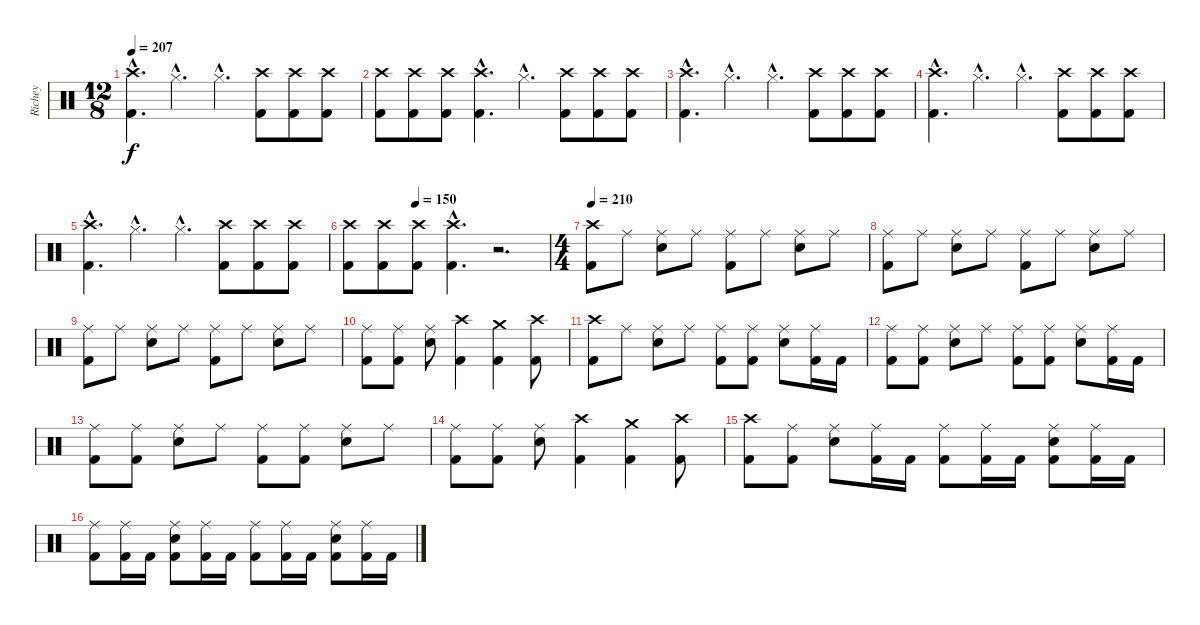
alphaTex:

\track ("Richey" "Richey") {instrument percussion}
\staff {score}
\articulation defaults
\ts (12 8)
\tempo 207
\clef neutral
\ks c
("Crash high (hit)"{hac} "Kick (hit) 2"{hac}).4{d dy f} "Hi-Hat (closed)"{hac}.4{d} "Hi-Hat (closed)"{hac}.4{d} ("Crash high (hit)" "Kick (hit) 2").8 ("Crash high (hit)" "Kick (hit) 2").8 ("Crash high (hit)" "Kick (hit) 2").8 |
("Crash high (hit)" "Kick (hit) 2").8 ("Crash high (hit)" "Kick (hit) 2").8 ("Crash high (hit)" "Kick (hit) 2").8 ("Crash high (hit)"{hac} "Kick (hit) 2"{hac}).4{d} "Hi-Hat (closed)"{hac}.4{d} ("Crash high (hit)" "Kick (hit) 2").8 ("Crash high (hit)" "Kick (hit) 2").8 ("Crash high (hit)" "Kick (hit) 2").8 |
("Crash high (hit)"{hac} "Kick (hit) 2"{hac}).4{d} "Hi-Hat (closed)"{hac}.4{d} "Hi-Hat (closed)"{hac}.4{d} ("Crash high (hit)" "Kick (hit) 2").8 ("Crash high (hit)" "Kick (hit) 2").8 ("Crash high (hit)" "Kick (hit) 2").8 |
("Crash high (hit)"{hac} "Kick (hit) 2"{hac}).4{d} "Hi-Hat (closed)"{hac}.4{d} "Hi-Hat (closed)"{hac}.4{d} ("Crash high (hit)" "Kick (hit) 2").8 ("Crash high (hit)" "Kick (hit) 2").8 ("Crash high (hit)" "Kick (hit) 2").8 |
("Crash high (hit)"{hac} "Kick (hit) 2"{hac}).4{d} "Hi-Hat (closed)"{hac}.4{d} "Hi-Hat (closed)"{hac}.4{d} ("Crash high (hit)" "Kick (hit) 2").8 ("Crash high (hit)" "Kick (hit) 2").8 ("Crash high (hit)" "Kick (hit) 2").8 |
\tempo (150 0.3333333333333333)
("Crash high (hit)" "Kick (hit) 2").8 ("Crash high (hit)" "Kick (hit) 2").8 ("Crash high (hit)" "Kick (hit) 2").8 ("Crash high (hit)"{hac} "Kick (hit) 2"{hac}).4{d} r.2{d} |
\ts (4 4)
\tempo 210
("Crash high (hit)" "Kick (hit) 2").8 "Ride (middle)".8 ("Ride (middle)" "Snare (hit) 2").8 "Ride (middle)".8 ("Ride (middle)" "Kick (hit) 2").8 "Ride (middle)".8 ("Ride (middle)" "Snare (hit) 2").8 "Ride (middle)".8 |
("Ride (middle)" "Kick (hit) 2").8 "Ride (middle)".8 ("Ride (middle)" "Snare (hit) 2").8 "Ride (middle)".8 ("Ride (middle)" "Kick (hit) 2").8 "Ride (middle)".8 ("Ride (middle)" "Snare (hit) 2").8 "Ride (middle)".8 |
("Ride (middle)" "Kick (hit) 2").8 "Ride (middle)".8 ("Ride (middle)" "Snare (hit) 2").8 "Ride (middle)".8 ("Ride (middle)" "Kick (hit) 2").8 "Ride (middle)".8 ("Ride (middle)" "Snare (hit) 2").8 "Ride (middle)".8 |
("Ride (middle)" "Kick (hit) 2").8 ("Ride (middle)" "Kick (hit) 2").8 ("Ride (middle)" "Snare (hit) 2").8 ("Crash high (hit)" "Kick (hit) 2").4 ("Crash medium (hit)" "Kick (hit) 2").4 ("Crash high (hit)" "Kick (hit) 2").8 |
("Crash high (hit)" "Kick (hit) 2").8 "Ride (middle)".8 ("Ride (middle)" "Snare (hit) 2").8 "Ride (middle)".8 ("Ride (middle)" "Kick (hit) 2").8 ("Ride (middle)" "Kick (hit) 2").8 ("Ride (middle)" "Snare (hit) 2").8 ("Ride (middle)" "Kick (hit) 2").16 "Kick (hit) 2".16 |
("Ride (middle)" "Kick (hit) 2").8 ("Ride (middle)" "Kick (hit) 2").8 ("Ride (middle)" "Snare (hit) 2").8 "Ride (middle)".8 ("Ride (middle)" "Kick (hit) 2").8 ("Ride (middle)" "Kick (hit) 2").8 ("Ride (middle)" "Snare (hit) 2").8 ("Ride (middle)" "Kick (hit) 2").16 "Kick (hit) 2".16 |
("Ride (middle)" "Kick (hit) 2").8 ("Ride (middle)" "Kick (hit) 2").8 ("Ride (middle)" "Snare (hit) 2").8 "Ride (middle)".8 ("Ride (middle)" "Kick (hit) 2").8 ("Ride (middle)" "Kick (hit) 2").8 ("Ride (middle)" "Snare (hit) 2").8 "Ride (middle)".8 |
("Ride (middle)" "Kick (hit) 2").8 ("Ride (middle)" "Kick (hit) 2").8 ("Ride (middle)" "Snare (hit) 2").8 ("Crash high (hit)" "Kick (hit) 2").4 ("Crash medium (hit)" "Kick (hit) 2").4 ("Crash high (hit)" "Kick (hit) 2").8 |
("Crash high (hit)" "Kick (hit) 2").8 ("Ride (middle)" "Kick (hit) 2").8 ("Ride (middle)" "Snare (hit) 2").8 ("Ride (middle)" "Kick (hit) 2").16 "Kick (hit) 2".16 ("Ride (middle)" "Kick (hit) 2").8 ("Ride (middle)" "Kick (hit) 2").16 "Kick (hit) 2".16 ("Ride (middle)" "Snare (hit) 2" "Kick (hit) 2").8 ("Ride (middle)" "Kick (hit) 2").16 "Kick (hit) 2".16 |
("Ride (middle)" "Kick (hit) 2").8 ("Ride (middle)" "Kick (hit) 2").16 "Kick (hit) 2".16 ("Ride (middle)" "Snare (hit) 2" "Kick (hit) 2").8 ("Ride (middle)" "Kick (hit) 2").16 "Kick (hit) 2".16 ("Ride (middle)" "Kick (hit) 2").8 ("Ride (middle)" "Kick (hit) 2").16 "Kick (hit) 2".16 ("Ride (middle)" "Snare (hit) 2" "Kick (hit) 2").8 ("Ride (middle)" "Kick (hit) 2").16 "Kick (hit) 2".16
